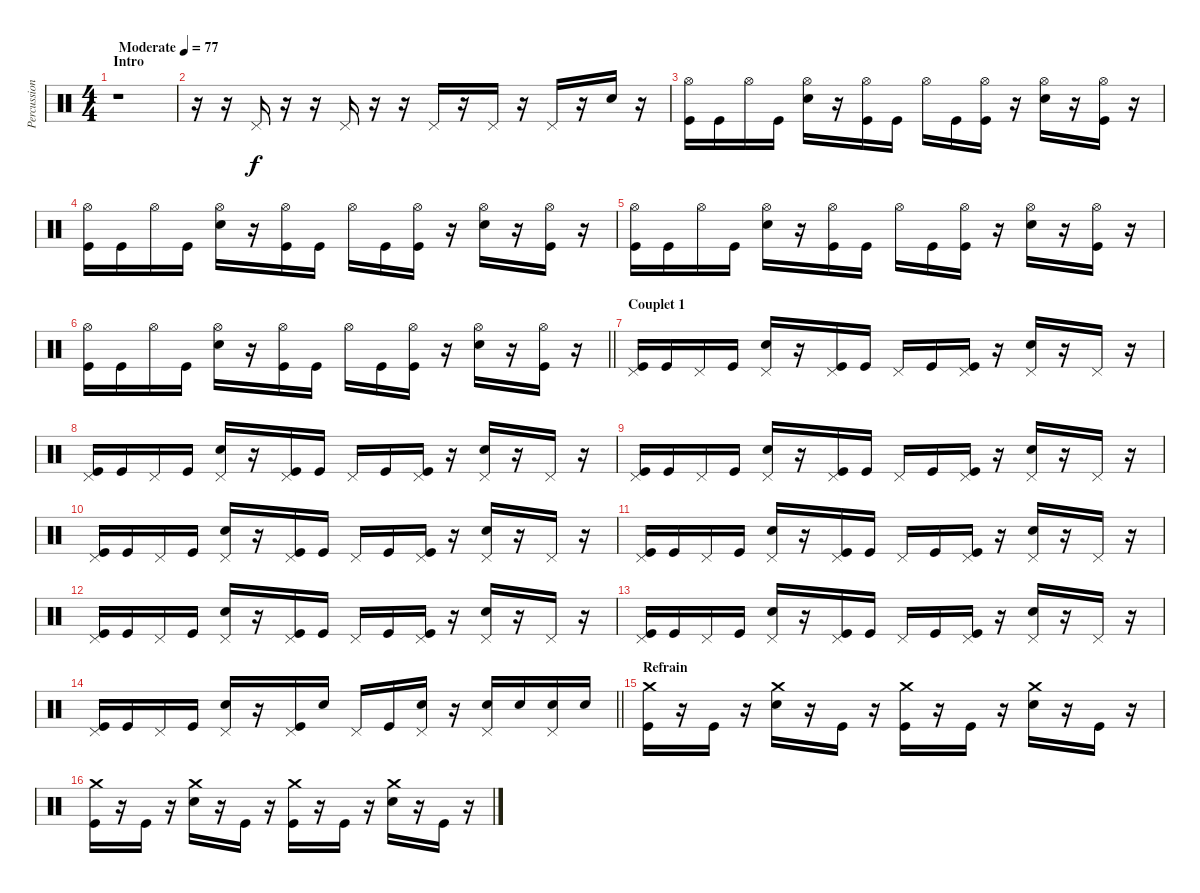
\track ("Percussions" "Percussion") {instrument percussion}
\staff {score}
\articulation defaults
\ts (4 4)
\section ("" "Intro")
\tempo (77 "Moderate")
\clef neutral
\ks c
r.1{dy f} |
r.16 r.16 "Pedal Hi-Hat (hit)".16 r.16 r.16 "Pedal Hi-Hat (hit)".16 r.16 r.16 "Pedal Hi-Hat (hit)".16 r.16 "Pedal Hi-Hat (hit)".16 r.16 "Pedal Hi-Hat (hit)".16 r.16 "Electric Snare (hit)".16 r.16 |
("Kick (hit)" "Hi-Hat (open)").16 "Kick (hit)".16 "Hi-Hat (open)".16 "Kick (hit)".16 ("Electric Snare (hit)" "Hi-Hat (open)").16 r.16 ("Kick (hit)" "Hi-Hat (open)").16 "Kick (hit)".16 "Hi-Hat (open)".16 "Kick (hit)".16 ("Kick (hit)" "Hi-Hat (open)").16 r.16 ("Electric Snare (hit)" "Hi-Hat (open)").16 r.16 ("Kick (hit)" "Hi-Hat (open)").16 r.16 |
("Kick (hit)" "Hi-Hat (open)").16 "Kick (hit)".16 "Hi-Hat (open)".16 "Kick (hit)".16 ("Electric Snare (hit)" "Hi-Hat (open)").16 r.16 ("Kick (hit)" "Hi-Hat (open)").16 "Kick (hit)".16 "Hi-Hat (open)".16 "Kick (hit)".16 ("Kick (hit)" "Hi-Hat (open)").16 r.16 ("Electric Snare (hit)" "Hi-Hat (open)").16 r.16 ("Kick (hit)" "Hi-Hat (open)").16 r.16 |
("Kick (hit)" "Hi-Hat (open)").16 "Kick (hit)".16 "Hi-Hat (open)".16 "Kick (hit)".16 ("Electric Snare (hit)" "Hi-Hat (open)").16 r.16 ("Kick (hit)" "Hi-Hat (open)").16 "Kick (hit)".16 "Hi-Hat (open)".16 "Kick (hit)".16 ("Kick (hit)" "Hi-Hat (open)").16 r.16 ("Electric Snare (hit)" "Hi-Hat (open)").16 r.16 ("Kick (hit)" "Hi-Hat (open)").16 r.16 |
\barLineRight lightlight
("Kick (hit)" "Hi-Hat (open)").16 "Kick (hit)".16 "Hi-Hat (open)".16 "Kick (hit)".16 ("Electric Snare (hit)" "Hi-Hat (open)").16 r.16 ("Kick (hit)" "Hi-Hat (open)").16 "Kick (hit)".16 "Hi-Hat (open)".16 "Kick (hit)".16 ("Kick (hit)" "Hi-Hat (open)").16 r.16 ("Electric Snare (hit)" "Hi-Hat (open)").16 r.16 ("Kick (hit)" "Hi-Hat (open)").16 r.16 |
\section ("" "Couplet 1")
("Kick (hit)" "Pedal Hi-Hat (hit)").16 "Kick (hit)".16 "Pedal Hi-Hat (hit)".16 "Kick (hit)".16 ("Electric Snare (hit)" "Pedal Hi-Hat (hit)").16 r.16 ("Kick (hit)" "Pedal Hi-Hat (hit)").16 "Kick (hit)".16 "Pedal Hi-Hat (hit)".16 "Kick (hit)".16 ("Kick (hit)" "Pedal Hi-Hat (hit)").16 r.16 ("Electric Snare (hit)" "Pedal Hi-Hat (hit)").16 r.16 "Pedal Hi-Hat (hit)".16 r.16 |
("Kick (hit)" "Pedal Hi-Hat (hit)").16 "Kick (hit)".16 "Pedal Hi-Hat (hit)".16 "Kick (hit)".16 ("Electric Snare (hit)" "Pedal Hi-Hat (hit)").16 r.16 ("Kick (hit)" "Pedal Hi-Hat (hit)").16 "Kick (hit)".16 "Pedal Hi-Hat (hit)".16 "Kick (hit)".16 ("Kick (hit)" "Pedal Hi-Hat (hit)").16 r.16 ("Electric Snare (hit)" "Pedal Hi-Hat (hit)").16 r.16 "Pedal Hi-Hat (hit)".16 r.16 |
("Kick (hit)" "Pedal Hi-Hat (hit)").16 "Kick (hit)".16 "Pedal Hi-Hat (hit)".16 "Kick (hit)".16 ("Electric Snare (hit)" "Pedal Hi-Hat (hit)").16 r.16 ("Kick (hit)" "Pedal Hi-Hat (hit)").16 "Kick (hit)".16 "Pedal Hi-Hat (hit)".16 "Kick (hit)".16 ("Kick (hit)" "Pedal Hi-Hat (hit)").16 r.16 ("Electric Snare (hit)" "Pedal Hi-Hat (hit)").16 r.16 "Pedal Hi-Hat (hit)".16 r.16 |
("Kick (hit)" "Pedal Hi-Hat (hit)").16 "Kick (hit)".16 "Pedal Hi-Hat (hit)".16 "Kick (hit)".16 ("Electric Snare (hit)" "Pedal Hi-Hat (hit)").16 r.16 ("Kick (hit)" "Pedal Hi-Hat (hit)").16 "Kick (hit)".16 "Pedal Hi-Hat (hit)".16 "Kick (hit)".16 ("Kick (hit)" "Pedal Hi-Hat (hit)").16 r.16 ("Electric Snare (hit)" "Pedal Hi-Hat (hit)").16 r.16 "Pedal Hi-Hat (hit)".16 r.16 |
("Kick (hit)" "Pedal Hi-Hat (hit)").16 "Kick (hit)".16 "Pedal Hi-Hat (hit)".16 "Kick (hit)".16 ("Electric Snare (hit)" "Pedal Hi-Hat (hit)").16 r.16 ("Kick (hit)" "Pedal Hi-Hat (hit)").16 "Kick (hit)".16 "Pedal Hi-Hat (hit)".16 "Kick (hit)".16 ("Kick (hit)" "Pedal Hi-Hat (hit)").16 r.16 ("Electric Snare (hit)" "Pedal Hi-Hat (hit)").16 r.16 "Pedal Hi-Hat (hit)".16 r.16 |
("Kick (hit)" "Pedal Hi-Hat (hit)").16 "Kick (hit)".16 "Pedal Hi-Hat (hit)".16 "Kick (hit)".16 ("Electric Snare (hit)" "Pedal Hi-Hat (hit)").16 r.16 ("Kick (hit)" "Pedal Hi-Hat (hit)").16 "Kick (hit)".16 "Pedal Hi-Hat (hit)".16 "Kick (hit)".16 ("Kick (hit)" "Pedal Hi-Hat (hit)").16 r.16 ("Electric Snare (hit)" "Pedal Hi-Hat (hit)").16 r.16 "Pedal Hi-Hat (hit)".16 r.16 |
("Kick (hit)" "Pedal Hi-Hat (hit)").16 "Kick (hit)".16 "Pedal Hi-Hat (hit)".16 "Kick (hit)".16 ("Electric Snare (hit)" "Pedal Hi-Hat (hit)").16 r.16 ("Kick (hit)" "Pedal Hi-Hat (hit)").16 "Kick (hit)".16 "Pedal Hi-Hat (hit)".16 "Kick (hit)".16 ("Kick (hit)" "Pedal Hi-Hat (hit)").16 r.16 ("Electric Snare (hit)" "Pedal Hi-Hat (hit)").16 r.16 "Pedal Hi-Hat (hit)".16 r.16 |
\barLineRight lightlight
("Kick (hit)" "Pedal Hi-Hat (hit)").16 "Kick (hit)".16 "Pedal Hi-Hat (hit)".16 "Kick (hit)".16 ("Electric Snare (hit)" "Pedal Hi-Hat (hit)").16 r.16 ("Kick (hit)" "Pedal Hi-Hat (hit)").16 "Electric Snare (hit)".16 "Pedal Hi-Hat (hit)".16 "Kick (hit)".16 ("Electric Snare (hit)" "Pedal Hi-Hat (hit)").16 r.16 ("Electric Snare (hit)" "Pedal Hi-Hat (hit)").16 "Electric Snare (hit)".16 ("Electric Snare (hit)" "Pedal Hi-Hat (hit)").16 "Electric Snare (hit)".16 |
\section ("" "Refrain")
("Kick (hit)" "Crash medium (hit)").16 r.16 "Kick (hit)".16 r.16 ("Electric Snare (hit)" "Crash medium (hit)").16 r.16 "Kick (hit)".16 r.16 ("Kick (hit)" "Crash medium (hit)").16 r.16 "Kick (hit)".16 r.16 ("Electric Snare (hit)" "Crash medium (hit)").16 r.16 "Kick (hit)".16 r.16 |
("Kick (hit)" "Crash medium (hit)").16 r.16 "Kick (hit)".16 r.16 ("Electric Snare (hit)" "Crash medium (hit)").16 r.16 "Kick (hit)".16 r.16 ("Kick (hit)" "Crash medium (hit)").16 r.16 "Kick (hit)".16 r.16 ("Electric Snare (hit)" "Crash medium (hit)").16 r.16 "Kick (hit)".16 r.16
